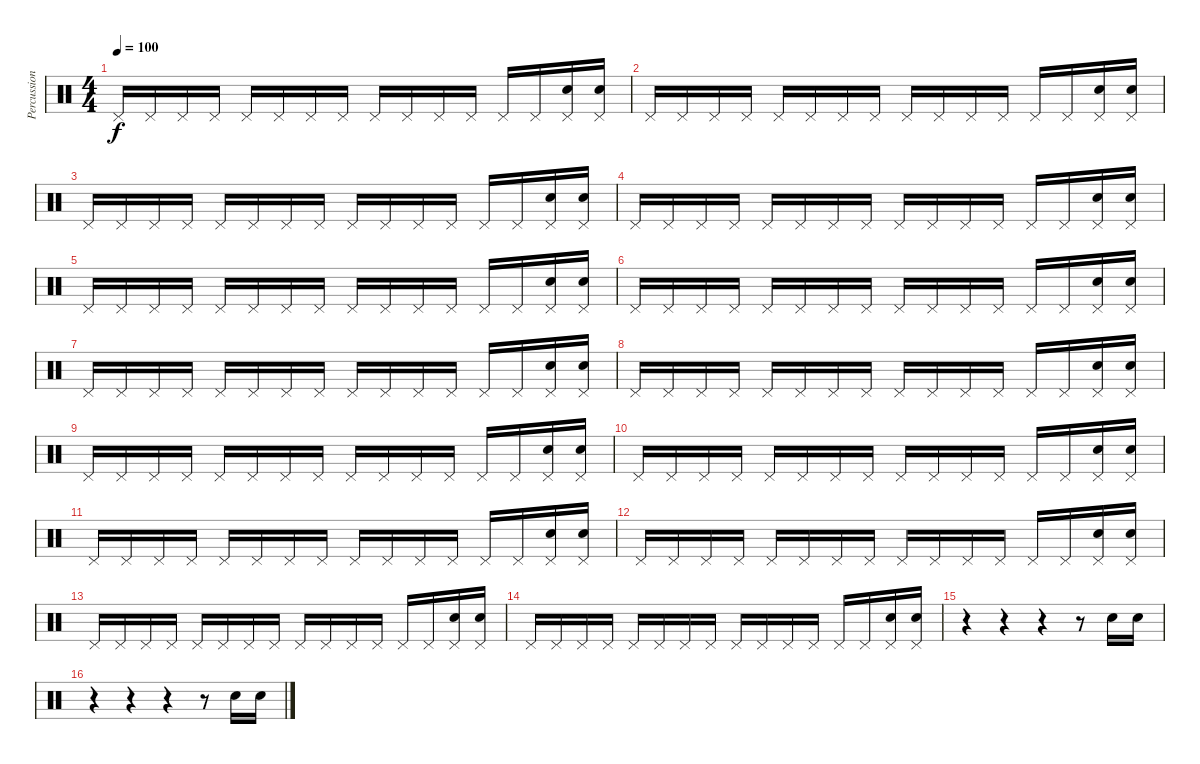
\track ("Percussions" "Percussion") {instrument percussion}
\staff {score}
\articulation defaults
\ts (4 4)
\tempo 100
\clef neutral
\ks c "Pedal Hi-Hat (hit)".16{dy f} "Pedal Hi-Hat (hit)".16 "Pedal Hi-Hat (hit)".16 "Pedal Hi-Hat (hit)".16 "Pedal Hi-Hat (hit)".16 "Pedal Hi-Hat (hit)".16 "Pedal Hi-Hat (hit)".16 "Pedal Hi-Hat (hit)".16 "Pedal Hi-Hat (hit)".16 "Pedal Hi-Hat (hit)".16 "Pedal Hi-Hat (hit)".16 "Pedal Hi-Hat (hit)".16 "Pedal Hi-Hat (hit)".16 "Pedal Hi-Hat (hit)".16
("Pedal Hi-Hat (hit)" "Electric Snare (hit)").16 ("Pedal Hi-Hat (hit)" "Electric Snare (hit)").16 |
"Pedal Hi-Hat (hit)".16 "Pedal Hi-Hat (hit)".16 "Pedal Hi-Hat (hit)".16 "Pedal Hi-Hat (hit)".16 "Pedal Hi-Hat (hit)".16 "Pedal Hi-Hat (hit)".16 "Pedal Hi-Hat (hit)".16 "Pedal Hi-Hat (hit)".16 "Pedal Hi-Hat (hit)".16 "Pedal Hi-Hat (hit)".16 "Pedal Hi-Hat (hit)".16 "Pedal Hi-Hat (hit)".16 "Pedal Hi-Hat (hit)".16 "Pedal Hi-Hat (hit)".16 ("Pedal Hi-Hat (hit)" "Electric Snare (hit)").16 ("Pedal Hi-Hat (hit)" "Electric Snare (hit)").16 |
"Pedal Hi-Hat (hit)".16 "Pedal Hi-Hat (hit)".16 "Pedal Hi-Hat (hit)".16 "Pedal Hi-Hat (hit)".16 "Pedal Hi-Hat (hit)".16 "Pedal Hi-Hat (hit)".16 "Pedal Hi-Hat (hit)".16 "Pedal Hi-Hat (hit)".16 "Pedal Hi-Hat (hit)".16 "Pedal Hi-Hat (hit)".16 "Pedal Hi-Hat (hit)".16 "Pedal Hi-Hat (hit)".16 "Pedal Hi-Hat (hit)".16 "Pedal Hi-Hat (hit)".16 ("Pedal Hi-Hat (hit)" "Electric Snare (hit)").16 ("Pedal Hi-Hat (hit)" "Electric Snare (hit)").16 |
"Pedal Hi-Hat (hit)".16 "Pedal Hi-Hat (hit)".16 "Pedal Hi-Hat (hit)".16 "Pedal Hi-Hat (hit)".16 "Pedal Hi-Hat (hit)".16 "Pedal Hi-Hat (hit)".16 "Pedal Hi-Hat (hit)".16 "Pedal Hi-Hat (hit)".16 "Pedal Hi-Hat (hit)".16 "Pedal Hi-Hat (hit)".16 "Pedal Hi-Hat (hit)".16 "Pedal Hi-Hat (hit)".16 "Pedal Hi-Hat (hit)".16 "Pedal Hi-Hat (hit)".16 ("Pedal Hi-Hat (hit)" "Electric Snare (hit)").16 ("Pedal Hi-Hat (hit)" "Electric Snare (hit)").16 |
"Pedal Hi-Hat (hit)".16 "Pedal Hi-Hat (hit)".16 "Pedal Hi-Hat (hit)".16 "Pedal Hi-Hat (hit)".16 "Pedal Hi-Hat (hit)".16 "Pedal Hi-Hat (hit)".16 "Pedal Hi-Hat (hit)".16 "Pedal Hi-Hat (hit)".16 "Pedal Hi-Hat (hit)".16 "Pedal Hi-Hat (hit)".16 "Pedal Hi-Hat (hit)".16 "Pedal Hi-Hat (hit)".16 "Pedal Hi-Hat (hit)".16 "Pedal Hi-Hat (hit)".16 ("Pedal Hi-Hat (hit)" "Electric Snare (hit)").16 ("Pedal Hi-Hat (hit)" "Electric Snare (hit)").16 |
"Pedal Hi-Hat (hit)".16 "Pedal Hi-Hat (hit)".16 "Pedal Hi-Hat (hit)".16 "Pedal Hi-Hat (hit)".16 "Pedal Hi-Hat (hit)".16 "Pedal Hi-Hat (hit)".16 "Pedal Hi-Hat (hit)".16 "Pedal Hi-Hat (hit)".16 "Pedal Hi-Hat (hit)".16 "Pedal Hi-Hat (hit)".16 "Pedal Hi-Hat (hit)".16 "Pedal Hi-Hat (hit)".16 "Pedal Hi-Hat (hit)".16 "Pedal Hi-Hat (hit)".16 ("Pedal Hi-Hat (hit)" "Electric Snare (hit)").16 ("Pedal Hi-Hat (hit)" "Electric Snare (hit)").16 |
"Pedal Hi-Hat (hit)".16 "Pedal Hi-Hat (hit)".16 "Pedal Hi-Hat (hit)".16 "Pedal Hi-Hat (hit)".16 "Pedal Hi-Hat (hit)".16 "Pedal Hi-Hat (hit)".16 "Pedal Hi-Hat (hit)".16 "Pedal Hi-Hat (hit)".16 "Pedal Hi-Hat (hit)".16 "Pedal Hi-Hat (hit)".16 "Pedal Hi-Hat (hit)".16 "Pedal Hi-Hat (hit)".16 "Pedal Hi-Hat (hit)".16 "Pedal Hi-Hat (hit)".16 ("Pedal Hi-Hat (hit)" "Electric Snare (hit)").16 ("Pedal Hi-Hat (hit)" "Electric Snare (hit)").16 |
"Pedal Hi-Hat (hit)".16 "Pedal Hi-Hat (hit)".16 "Pedal Hi-Hat (hit)".16 "Pedal Hi-Hat (hit)".16 "Pedal Hi-Hat (hit)".16 "Pedal Hi-Hat (hit)".16 "Pedal Hi-Hat (hit)".16 "Pedal Hi-Hat (hit)".16 "Pedal Hi-Hat (hit)".16 "Pedal Hi-Hat (hit)".16 "Pedal Hi-Hat (hit)".16 "Pedal Hi-Hat (hit)".16 "Pedal Hi-Hat (hit)".16 "Pedal Hi-Hat (hit)".16 ("Pedal Hi-Hat (hit)" "Electric Snare (hit)").16 ("Pedal Hi-Hat (hit)" "Electric Snare (hit)").16 |
"Pedal Hi-Hat (hit)".16 "Pedal Hi-Hat (hit)".16 "Pedal Hi-Hat (hit)".16 "Pedal Hi-Hat (hit)".16 "Pedal Hi-Hat (hit)".16 "Pedal Hi-Hat (hit)".16 "Pedal Hi-Hat (hit)".16 "Pedal Hi-Hat (hit)".16 "Pedal Hi-Hat (hit)".16 "Pedal Hi-Hat (hit)".16 "Pedal Hi-Hat (hit)".16 "Pedal Hi-Hat (hit)".16 "Pedal Hi-Hat (hit)".16 "Pedal Hi-Hat (hit)".16 ("Pedal Hi-Hat (hit)" "Electric Snare (hit)").16 ("Pedal Hi-Hat (hit)" "Electric Snare (hit)").16 |
"Pedal Hi-Hat (hit)".16 "Pedal Hi-Hat (hit)".16 "Pedal Hi-Hat (hit)".16 "Pedal Hi-Hat (hit)".16 "Pedal Hi-Hat (hit)".16 "Pedal Hi-Hat (hit)".16 "Pedal Hi-Hat (hit)".16 "Pedal Hi-Hat (hit)".16 "Pedal Hi-Hat (hit)".16 "Pedal Hi-Hat (hit)".16 "Pedal Hi-Hat (hit)".16 "Pedal Hi-Hat (hit)".16 "Pedal Hi-Hat (hit)".16 "Pedal Hi-Hat (hit)".16 ("Pedal Hi-Hat (hit)" "Electric Snare (hit)").16 ("Pedal Hi-Hat (hit)" "Electric Snare (hit)").16 |
"Pedal Hi-Hat (hit)".16 "Pedal Hi-Hat (hit)".16 "Pedal Hi-Hat (hit)".16 "Pedal Hi-Hat (hit)".16 "Pedal Hi-Hat (hit)".16 "Pedal Hi-Hat (hit)".16 "Pedal Hi-Hat (hit)".16 "Pedal Hi-Hat (hit)".16 "Pedal Hi-Hat (hit)".16 "Pedal Hi-Hat (hit)".16 "Pedal Hi-Hat (hit)".16 "Pedal Hi-Hat (hit)".16 "Pedal Hi-Hat (hit)".16 "Pedal Hi-Hat (hit)".16 ("Pedal Hi-Hat (hit)" "Electric Snare (hit)").16 ("Pedal Hi-Hat (hit)" "Electric Snare (hit)").16 |
"Pedal Hi-Hat (hit)".16 "Pedal Hi-Hat (hit)".16 "Pedal Hi-Hat (hit)".16 "Pedal Hi-Hat (hit)".16 "Pedal Hi-Hat (hit)".16 "Pedal Hi-Hat (hit)".16 "Pedal Hi-Hat (hit)".16 "Pedal Hi-Hat (hit)".16 "Pedal Hi-Hat (hit)".16 "Pedal Hi-Hat (hit)".16 "Pedal Hi-Hat (hit)".16 "Pedal Hi-Hat (hit)".16 "Pedal Hi-Hat (hit)".16 "Pedal Hi-Hat (hit)".16 ("Pedal Hi-Hat (hit)" "Electric Snare (hit)").16 ("Pedal Hi-Hat (hit)" "Electric Snare (hit)").16 |
"Pedal Hi-Hat (hit)".16 "Pedal Hi-Hat (hit)".16 "Pedal Hi-Hat (hit)".16 "Pedal Hi-Hat (hit)".16 "Pedal Hi-Hat (hit)".16 "Pedal Hi-Hat (hit)".16 "Pedal Hi-Hat (hit)".16 "Pedal Hi-Hat (hit)".16 "Pedal Hi-Hat (hit)".16 "Pedal Hi-Hat (hit)".16 "Pedal Hi-Hat (hit)".16 "Pedal Hi-Hat (hit)".16 "Pedal Hi-Hat (hit)".16 "Pedal Hi-Hat (hit)".16 ("Pedal Hi-Hat (hit)" "Electric Snare (hit)").16 ("Pedal Hi-Hat (hit)" "Electric Snare (hit)").16 |
"Pedal Hi-Hat (hit)".16 "Pedal Hi-Hat (hit)".16 "Pedal Hi-Hat (hit)".16 "Pedal Hi-Hat (hit)".16 "Pedal Hi-Hat (hit)".16 "Pedal Hi-Hat (hit)".16 "Pedal Hi-Hat (hit)".16 "Pedal Hi-Hat (hit)".16 "Pedal Hi-Hat (hit)".16 "Pedal Hi-Hat (hit)".16 "Pedal Hi-Hat (hit)".16 "Pedal Hi-Hat (hit)".16 "Pedal Hi-Hat (hit)".16 "Pedal Hi-Hat (hit)".16 ("Pedal Hi-Hat (hit)" "Electric Snare (hit)").16 ("Pedal Hi-Hat (hit)" "Electric Snare (hit)").16 |
r.4 r.4 r.4 r.8 "Electric Snare (hit)".16 "Electric Snare (hit)".16 |
r.4 r.4 r.4 r.8 "Electric Snare (hit)".16 "Electric Snare (hit)".16
